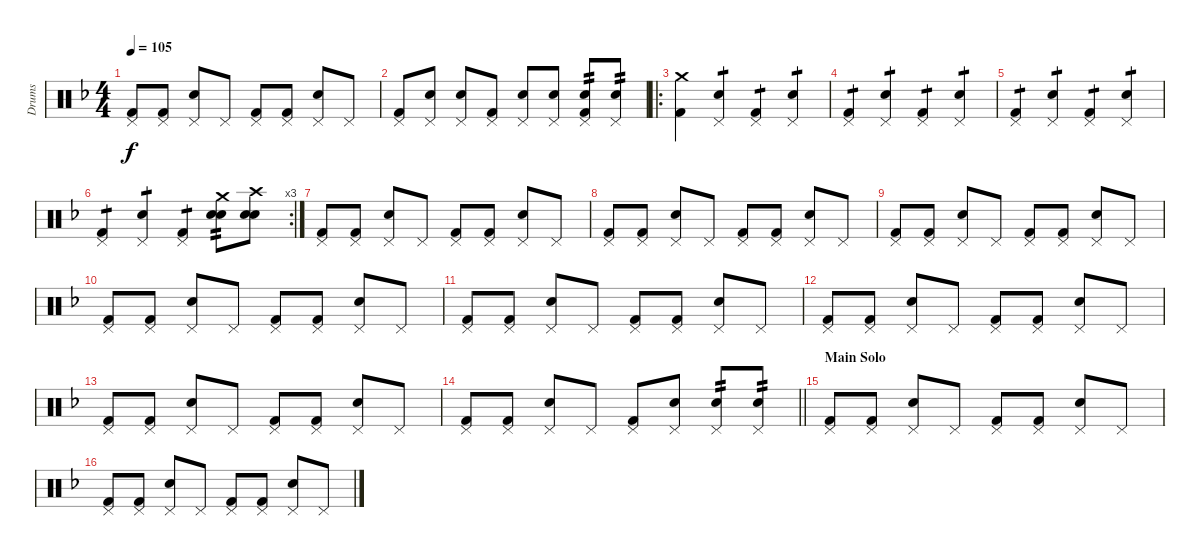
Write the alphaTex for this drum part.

\track ("Drums" "Drums") {instrument percussion}
\staff {score}
\articulation defaults
\ts (4 4)
\tempo 105
\clef neutral
\ks f
("Kick (hit) 2" "Pedal Hi-Hat (hit)").8{dy f} ("Kick (hit) 2" "Pedal Hi-Hat (hit)").8 ("Snare (hit) 2" "Pedal Hi-Hat (hit)").8 "Pedal Hi-Hat (hit)".8 ("Kick (hit) 2" "Pedal Hi-Hat (hit)").8 ("Kick (hit) 2" "Pedal Hi-Hat (hit)").8 ("Snare (hit) 2" "Pedal Hi-Hat (hit)").8 "Pedal Hi-Hat (hit)".8 |
("Kick (hit) 2" "Pedal Hi-Hat (hit)").8 ("Snare (hit) 2" "Pedal Hi-Hat (hit)").8 ("Snare (hit) 2" "Pedal Hi-Hat (hit)").8 ("Kick (hit) 2" "Pedal Hi-Hat (hit)").8 ("Snare (hit) 2" "Pedal Hi-Hat (hit)").8 ("Snare (hit) 2" "Pedal Hi-Hat (hit)").8 ("Snare (hit) 2" "Kick (hit) 2" "Pedal Hi-Hat (hit)").8{tp 2} ("Snare (hit) 2" "Pedal Hi-Hat (hit)").8{tp 2} |
\ro
("Kick (hit) 2" "Crash medium (hit)").4 ("Snare (hit) 2" "Pedal Hi-Hat (hit)").4{tp 1} ("Kick (hit) 2" "Pedal Hi-Hat (hit)").4{tp 1} ("Snare (hit) 2" "Pedal Hi-Hat (hit)").4{tp 1} |
("Kick (hit) 2" "Pedal Hi-Hat (hit)").4{tp 1} ("Snare (hit) 2" "Pedal Hi-Hat (hit)").4{tp 1} ("Kick (hit) 2" "Pedal Hi-Hat (hit)").4{tp 1} ("Snare (hit) 2" "Pedal Hi-Hat (hit)").4{tp 1} |
("Kick (hit) 2" "Pedal Hi-Hat (hit)").4{tp 1} ("Snare (hit) 2" "Pedal Hi-Hat (hit)").4{tp 1} ("Kick (hit) 2" "Pedal Hi-Hat (hit)").4{tp 1} ("Snare (hit) 2" "Pedal Hi-Hat (hit)").4{tp 1} |
\rc 3
("Kick (hit) 2" "Pedal Hi-Hat (hit)").4{tp 1} ("Snare (hit) 2" "Pedal Hi-Hat (hit)").4{tp 1} ("Kick (hit) 2" "Pedal Hi-Hat (hit)").4{tp 1} ("Snare (hit) 2" "Snare (hit) 2" "Crash medium (hit)").8{tp 2} ("Snare (hit) 2" "Snare (hit) 2" "Crash high (hit)").8 |
("Kick (hit) 2" "Pedal Hi-Hat (hit)").8 ("Kick (hit) 2" "Pedal Hi-Hat (hit)").8 ("Snare (hit) 2" "Pedal Hi-Hat (hit)").8 "Pedal Hi-Hat (hit)".8 ("Kick (hit) 2" "Pedal Hi-Hat (hit)").8 ("Kick (hit) 2" "Pedal Hi-Hat (hit)").8 ("Snare (hit) 2" "Pedal Hi-Hat (hit)").8 "Pedal Hi-Hat (hit)".8 |
("Kick (hit) 2" "Pedal Hi-Hat (hit)").8 ("Kick (hit) 2" "Pedal Hi-Hat (hit)").8 ("Snare (hit) 2" "Pedal Hi-Hat (hit)").8 "Pedal Hi-Hat (hit)".8 ("Kick (hit) 2" "Pedal Hi-Hat (hit)").8 ("Kick (hit) 2" "Pedal Hi-Hat (hit)").8 ("Snare (hit) 2" "Pedal Hi-Hat (hit)").8 "Pedal Hi-Hat (hit)".8 |
("Kick (hit) 2" "Pedal Hi-Hat (hit)").8 ("Kick (hit) 2" "Pedal Hi-Hat (hit)").8 ("Snare (hit) 2" "Pedal Hi-Hat (hit)").8 "Pedal Hi-Hat (hit)".8 ("Kick (hit) 2" "Pedal Hi-Hat (hit)").8 ("Kick (hit) 2" "Pedal Hi-Hat (hit)").8 ("Snare (hit) 2" "Pedal Hi-Hat (hit)").8 "Pedal Hi-Hat (hit)".8 |
("Kick (hit) 2" "Pedal Hi-Hat (hit)").8 ("Kick (hit) 2" "Pedal Hi-Hat (hit)").8 ("Snare (hit) 2" "Pedal Hi-Hat (hit)").8 "Pedal Hi-Hat (hit)".8 ("Kick (hit) 2" "Pedal Hi-Hat (hit)").8 ("Kick (hit) 2" "Pedal Hi-Hat (hit)").8 ("Snare (hit) 2" "Pedal Hi-Hat (hit)").8 "Pedal Hi-Hat (hit)".8 |
("Kick (hit) 2" "Pedal Hi-Hat (hit)").8 ("Kick (hit) 2" "Pedal Hi-Hat (hit)").8 ("Snare (hit) 2" "Pedal Hi-Hat (hit)").8 "Pedal Hi-Hat (hit)".8 ("Kick (hit) 2" "Pedal Hi-Hat (hit)").8 ("Kick (hit) 2" "Pedal Hi-Hat (hit)").8 ("Snare (hit) 2" "Pedal Hi-Hat (hit)").8 "Pedal Hi-Hat (hit)".8 |
("Kick (hit) 2" "Pedal Hi-Hat (hit)").8 ("Kick (hit) 2" "Pedal Hi-Hat (hit)").8 ("Snare (hit) 2" "Pedal Hi-Hat (hit)").8 "Pedal Hi-Hat (hit)".8 ("Kick (hit) 2" "Pedal Hi-Hat (hit)").8 ("Kick (hit) 2" "Pedal Hi-Hat (hit)").8 ("Snare (hit) 2" "Pedal Hi-Hat (hit)").8 "Pedal Hi-Hat (hit)".8 |
("Kick (hit) 2" "Pedal Hi-Hat (hit)").8 ("Kick (hit) 2" "Pedal Hi-Hat (hit)").8 ("Snare (hit) 2" "Pedal Hi-Hat (hit)").8 "Pedal Hi-Hat (hit)".8 ("Kick (hit) 2" "Pedal Hi-Hat (hit)").8 ("Kick (hit) 2" "Pedal Hi-Hat (hit)").8 ("Snare (hit) 2" "Pedal Hi-Hat (hit)").8 "Pedal Hi-Hat (hit)".8 |
\barLineRight lightlight
("Kick (hit) 2" "Pedal Hi-Hat (hit)").8 ("Kick (hit) 2" "Pedal Hi-Hat (hit)").8 ("Snare (hit) 2" "Pedal Hi-Hat (hit)").8 "Pedal Hi-Hat (hit)".8 ("Kick (hit) 2" "Pedal Hi-Hat (hit)").8 ("Snare (hit) 2" "Pedal Hi-Hat (hit)").8 ("Snare (hit) 2" "Pedal Hi-Hat (hit)").8{tp 2} ("Snare (hit) 2" "Pedal Hi-Hat (hit)").8{tp 2} |
\section ("" "Main Solo")
("Kick (hit) 2" "Pedal Hi-Hat (hit)").8 ("Kick (hit) 2" "Pedal Hi-Hat (hit)").8 ("Snare (hit) 2" "Pedal Hi-Hat (hit)").8 "Pedal Hi-Hat (hit)".8 ("Kick (hit) 2" "Pedal Hi-Hat (hit)").8 ("Kick (hit) 2" "Pedal Hi-Hat (hit)").8 ("Snare (hit) 2" "Pedal Hi-Hat (hit)").8 "Pedal Hi-Hat (hit)".8 |
("Kick (hit) 2" "Pedal Hi-Hat (hit)").8 ("Kick (hit) 2" "Pedal Hi-Hat (hit)").8 ("Snare (hit) 2" "Pedal Hi-Hat (hit)").8 "Pedal Hi-Hat (hit)".8 ("Kick (hit) 2" "Pedal Hi-Hat (hit)").8 ("Kick (hit) 2" "Pedal Hi-Hat (hit)").8 ("Snare (hit) 2" "Pedal Hi-Hat (hit)").8 "Pedal Hi-Hat (hit)".8
